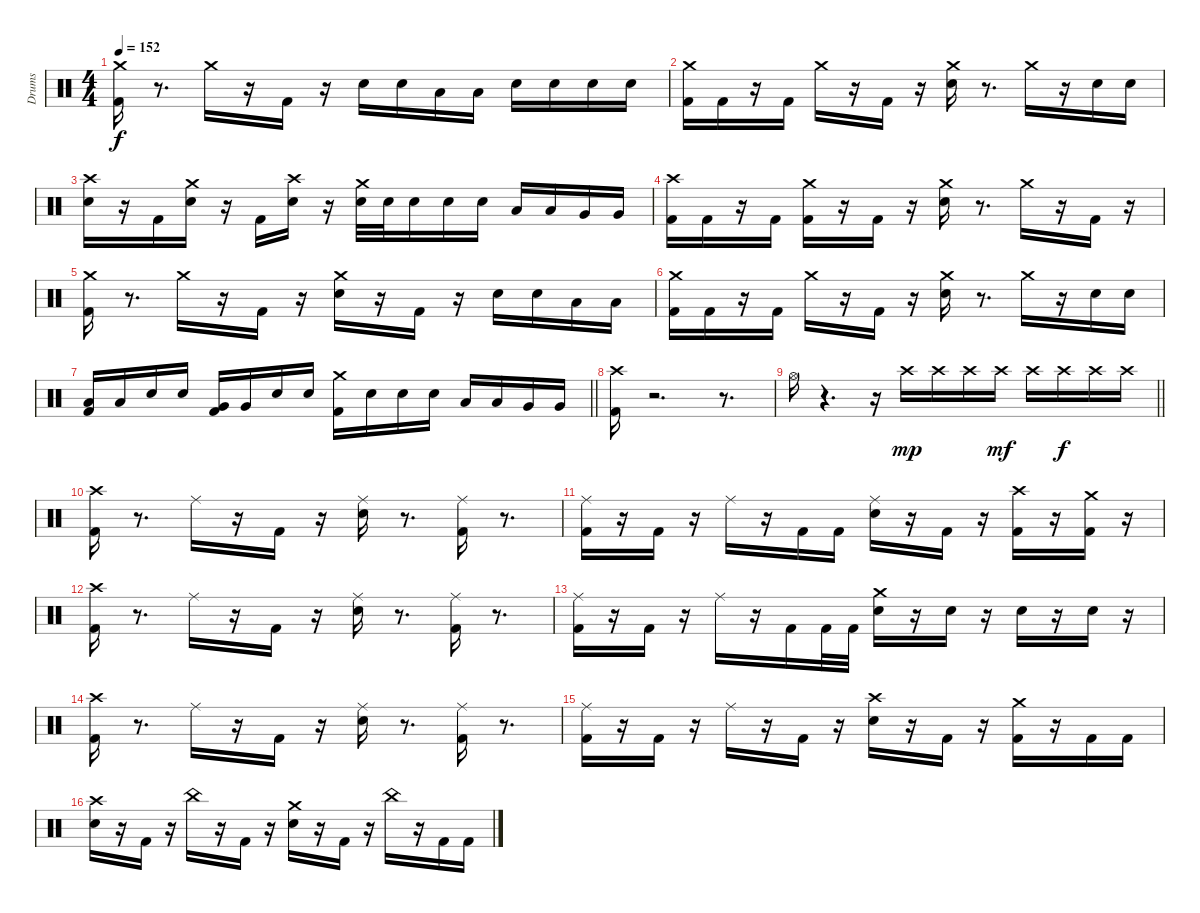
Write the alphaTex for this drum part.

\track ("Drums" "Drums") {instrument percussion}
\staff {score}
\articulation defaults
\ts (4 4)
\tempo 152
\clef neutral
\ks c
("Kick (hit) 2" "Crash medium (hit)").16{dy f} r.8{d} "Crash medium (hit)".16 r.16 "Kick (hit) 2".16 r.16 "Snare (hit) 2".16 "Snare (hit) 2".16 "Low Tom (hit)".16 "Low Tom (hit)".16 "Snare (hit) 2".16 "Snare (hit) 2".16 "Snare (hit) 2".16 "Snare (hit) 2".16 |
("Kick (hit) 2" "Crash medium (hit)").16 "Kick (hit) 2".16 r.16 "Kick (hit) 2".16 "Crash medium (hit)".16 r.16 "Kick (hit) 2".16 r.16 ("Snare (hit) 2" "Crash medium (hit)").16 r.8{d} "Crash medium (hit)".16 r.16 "Snare (hit) 2".16 "Snare (hit) 2".16 |
("Snare (hit) 2" "Crash high (hit)").16 r.16 "Kick (hit) 2".16 ("Snare (hit) 2" "Crash medium (hit)").16 r.16 "Kick (hit) 2".16 ("Snare (hit) 2" "Crash high (hit)").16 r.16 ("Snare (hit) 2" "Crash medium (hit)").32 "Snare (hit) 2".32 "Snare (hit) 2".16 "Snare (hit) 2".16 "Snare (hit) 2".16 "Low Tom (hit)".16 "Low Tom (hit)".16 "Very Low Tom (hit)".16 "Very Low Tom (hit)".16 |
("Kick (hit) 2" "Crash high (hit)").16 "Kick (hit) 2".16 r.16 "Kick (hit) 2".16 ("Kick (hit) 2" "Crash medium (hit)").16 r.16 "Kick (hit) 2".16 r.16 ("Snare (hit) 2" "Crash medium (hit)").16 r.8{d} "Crash medium (hit)".16 r.16 "Kick (hit) 2".16 r.16 |
("Kick (hit) 2" "Crash medium (hit)").16 r.8{d} "Crash medium (hit)".16 r.16 "Kick (hit) 2".16 r.16 ("Snare (hit) 2" "Crash medium (hit)").16 r.16 "Kick (hit) 2".16 r.16 "Snare (hit) 2".16 "Snare (hit) 2".16 "Low Tom (hit)".16 "Low Tom (hit)".16 |
("Kick (hit) 2" "Crash medium (hit)").16 "Kick (hit) 2".16 r.16 "Kick (hit) 2".16 "Crash medium (hit)".16 r.16 "Kick (hit) 2".16 r.16 ("Snare (hit) 2" "Crash medium (hit)").16 r.8{d} "Crash medium (hit)".16 r.16 "Snare (hit) 2".16 "Snare (hit) 2".16 |
\barLineRight lightlight
("Kick (hit) 2" "Low Tom (hit)").16 "Low Tom (hit)".16 "Snare (hit) 2".16 "Snare (hit) 2".16 ("Kick (hit) 2" "Very Low Tom (hit)").16 "Very Low Tom (hit)".16 "Snare (hit) 2".16 "Snare (hit) 2".16 ("Kick (hit) 2" "Crash medium (hit)").16 "Snare (hit) 2".16 "Snare (hit) 2".16 "Snare (hit) 2".16 "Low Tom (hit)".16 "Low Tom (hit)".16 "Very Low Tom (hit)".16 "Very Low Tom (hit)".16 |
\section ("" " ")
("Kick (hit) 2" "Crash high (hit)").16 r.2{d} r.8{d} |
\barLineRight lightlight "Hi-Hat (open)".16
r.4{d} r.16 "Crash high (hit)".16{dy mp} "Crash high (hit)".16 "Crash high (hit)".16 "Crash high (hit)".16{dy mf} "Crash high (hit)".16 "Crash high (hit)".16{dy f} "Crash high (hit)".16 "Crash high (hit)".16 |
\section ("" " ")
("Kick (hit) 2" "Crash high (hit)").16 r.8{d} "Ride (middle)".16 r.16 "Kick (hit) 2".16 r.16 ("Snare (hit) 2" "Ride (middle)").16 r.8{d} ("Kick (hit) 2" "Ride (middle)").16 r.8{d} |
("Kick (hit) 2" "Ride (middle)").16 r.16 "Kick (hit) 2".16 r.16 "Ride (middle)".16 r.16 "Kick (hit) 2".16 "Kick (hit) 2".16 ("Snare (hit) 2" "Ride (middle)").16 r.16 "Kick (hit) 2".16 r.16 ("Kick (hit) 2" "Crash high (hit)").16 r.16 ("Kick (hit) 2" "Crash medium (hit)").16 r.16 |
("Kick (hit) 2" "Crash high (hit)").16 r.8{d} "Ride (middle)".16 r.16 "Kick (hit) 2".16 r.16 ("Snare (hit) 2" "Ride (middle)").16 r.8{d} ("Kick (hit) 2" "Ride (middle)").16 r.8{d} |
("Kick (hit) 2" "Ride (middle)").16 r.16 "Kick (hit) 2".16 r.16 "Ride (middle)".16 r.16 "Kick (hit) 2".16 "Kick (hit) 2".32 "Kick (hit) 2".32 ("Snare (hit) 2" "Crash medium (hit)").16 r.16 "Snare (hit) 2".16 r.16 "Snare (hit) 2".16 r.16 "Snare (hit) 2".16 r.16 |
("Kick (hit) 2" "Crash high (hit)").16 r.8{d} "Ride (middle)".16 r.16 "Kick (hit) 2".16 r.16 ("Snare (hit) 2" "Ride (middle)").16 r.8{d} ("Kick (hit) 2" "Ride (middle)").16 r.8{d} |
("Kick (hit) 2" "Ride (middle)").16 r.16 "Kick (hit) 2".16 r.16 "Ride (middle)".16 r.16 "Kick (hit) 2".16 r.16 ("Snare (hit) 2" "Crash high (hit)").16 r.16 "Kick (hit) 2".16 r.16 ("Kick (hit) 2" "Crash medium (hit)").16 r.16 "Kick (hit) 2".16 "Kick (hit) 2".16 |
("Snare (hit) 2" "Crash high (hit)").16 r.16 "Kick (hit) 2".16 r.16 "China (hit)".16 r.16 "Kick (hit) 2".16 r.16 ("Snare (hit) 2" "Crash medium (hit)").16 r.16 "Kick (hit) 2".16 r.16 "China (hit)".16 r.16 "Kick (hit) 2".16 "Kick (hit) 2".16
